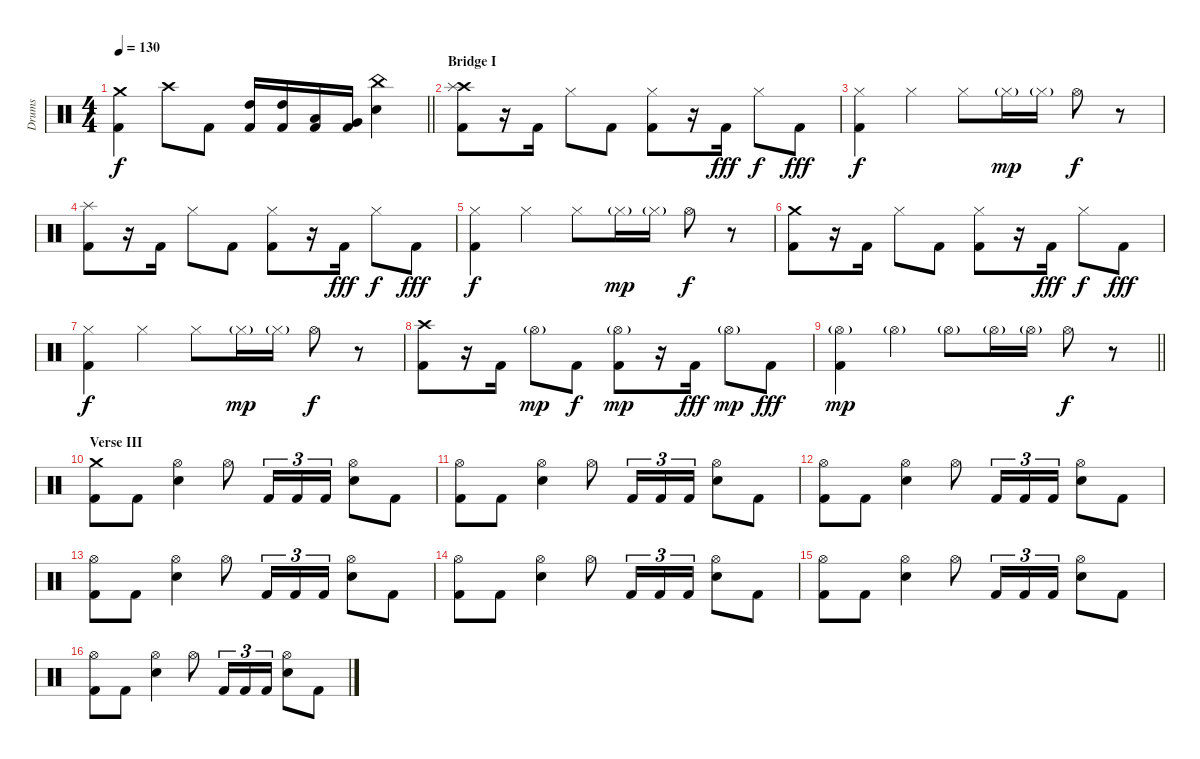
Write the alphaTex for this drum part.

\track ("Drums" "Drums") {instrument percussion}
\staff {score}
\articulation defaults
\ts (4 4)
\tempo 130
\clef neutral
\barLineRight lightlight
\ks c
("Crash medium (hit)" "Kick (hit) 2").4{dy f} "Crash high (hit)".8 "Kick (hit) 2".8 ("High Tom (hit)" "Kick (hit) 2").16 ("High Tom (hit)" "Kick (hit) 2").16 ("Low Tom (hit)" "Kick (hit) 2").16 ("Very Low Tom (hit)" "Kick (hit) 2").16 ("China (hit)" "Electric Snare (hit)").4 |
\section ("" "Bridge I")
("Crash high (hit)" "Splash (hit)" "Kick (hit) 2").8 r.16 "Kick (hit) 2".16 "Hi-Hat (closed)".8 "Kick (hit) 2".8 ("Hi-Hat (closed)" "Kick (hit) 2").8 r.16 "Kick (hit) 2".16{dy fff} "Hi-Hat (closed)".8{dy f} "Kick (hit) 2".8{dy fff} |
("Hi-Hat (closed)" "Kick (hit) 2").4{dy f} "Hi-Hat (closed)".4 "Hi-Hat (closed)".8 "Hi-Hat (closed)"{g}.16{dy mp} "Hi-Hat (closed)"{g}.16 "Hi-Hat (open)".8{dy f} r.8 |
("Splash (hit)" "Kick (hit) 2").8 r.16 "Kick (hit) 2".16 "Hi-Hat (closed)".8 "Kick (hit) 2".8 ("Hi-Hat (closed)" "Kick (hit) 2").8 r.16 "Kick (hit) 2".16{dy fff} "Hi-Hat (closed)".8{dy f} "Kick (hit) 2".8{dy fff} |
("Hi-Hat (closed)" "Kick (hit) 2").4{dy f} "Hi-Hat (closed)".4 "Hi-Hat (closed)".8 "Hi-Hat (closed)"{g}.16{dy mp} "Hi-Hat (closed)"{g}.16 "Hi-Hat (open)".8{dy f} r.8 |
("Crash medium (hit)" "Kick (hit) 2").8 r.16 "Kick (hit) 2".16 "Hi-Hat (closed)".8 "Kick (hit) 2".8 ("Hi-Hat (closed)" "Kick (hit) 2").8 r.16 "Kick (hit) 2".16{dy fff} "Hi-Hat (closed)".8{dy f} "Kick (hit) 2".8{dy fff} |
("Hi-Hat (closed)" "Kick (hit) 2").4{dy f} "Hi-Hat (closed)".4 "Hi-Hat (closed)".8 "Hi-Hat (closed)"{g}.16{dy mp} "Hi-Hat (closed)"{g}.16 "Hi-Hat (open)".8{dy f} r.8 |
("Crash high (hit)" "Kick (hit) 2").8 r.16 "Kick (hit) 2".16 "Hi-Hat (open)"{g}.8{dy mp} "Kick (hit) 2".8{dy f} ("Hi-Hat (open)"{g} "Kick (hit) 2").8{dy mp} r.16 "Kick (hit) 2".16{dy fff} "Hi-Hat (open)"{g}.8{dy mp} "Kick (hit) 2".8{dy fff} |
\barLineRight lightlight
("Hi-Hat (open)"{g} "Kick (hit) 2").4{dy mp} "Hi-Hat (open)"{g}.4 "Hi-Hat (open)"{g}.8 "Hi-Hat (open)"{g}.16 "Hi-Hat (open)"{g}.16 "Hi-Hat (open)".8{dy f} r.8 |
\section ("" "Verse III")
("Crash medium (hit)" "Kick (hit) 2").8 "Kick (hit) 2".8 ("Hi-Hat (open)" "Electric Snare (hit)").4 "Hi-Hat (open)".8 "Kick (hit) 2".16{tu (3 2)} "Kick (hit) 2".16{tu (3 2)} "Kick (hit) 2".16{tu (3 2)} ("Hi-Hat (open)" "Electric Snare (hit)").8 "Kick (hit) 2".8 |
("Hi-Hat (open)" "Kick (hit) 2").8 "Kick (hit) 2".8 ("Hi-Hat (open)" "Electric Snare (hit)").4 "Hi-Hat (open)".8 "Kick (hit) 2".16{tu (3 2)} "Kick (hit) 2".16{tu (3 2)} "Kick (hit) 2".16{tu (3 2)} ("Hi-Hat (open)" "Electric Snare (hit)").8 "Kick (hit) 2".8 |
("Hi-Hat (open)" "Kick (hit) 2").8 "Kick (hit) 2".8 ("Hi-Hat (open)" "Electric Snare (hit)").4 "Hi-Hat (open)".8 "Kick (hit) 2".16{tu (3 2)} "Kick (hit) 2".16{tu (3 2)} "Kick (hit) 2".16{tu (3 2)} ("Hi-Hat (open)" "Electric Snare (hit)").8 "Kick (hit) 2".8 |
("Hi-Hat (open)" "Kick (hit) 2").8 "Kick (hit) 2".8 ("Hi-Hat (open)" "Electric Snare (hit)").4 "Hi-Hat (open)".8 "Kick (hit) 2".16{tu (3 2)} "Kick (hit) 2".16{tu (3 2)} "Kick (hit) 2".16{tu (3 2)} ("Hi-Hat (open)" "Electric Snare (hit)").8 "Kick (hit) 2".8 |
("Hi-Hat (open)" "Kick (hit) 2").8 "Kick (hit) 2".8 ("Hi-Hat (open)" "Electric Snare (hit)").4 "Hi-Hat (open)".8 "Kick (hit) 2".16{tu (3 2)} "Kick (hit) 2".16{tu (3 2)} "Kick (hit) 2".16{tu (3 2)} ("Hi-Hat (open)" "Electric Snare (hit)").8 "Kick (hit) 2".8 |
("Hi-Hat (open)" "Kick (hit) 2").8 "Kick (hit) 2".8 ("Hi-Hat (open)" "Electric Snare (hit)").4 "Hi-Hat (open)".8 "Kick (hit) 2".16{tu (3 2)} "Kick (hit) 2".16{tu (3 2)} "Kick (hit) 2".16{tu (3 2)} ("Hi-Hat (open)" "Electric Snare (hit)").8 "Kick (hit) 2".8 |
("Hi-Hat (open)" "Kick (hit) 2").8 "Kick (hit) 2".8 ("Hi-Hat (open)" "Electric Snare (hit)").4 "Hi-Hat (open)".8 "Kick (hit) 2".16{tu (3 2)} "Kick (hit) 2".16{tu (3 2)} "Kick (hit) 2".16{tu (3 2)} ("Hi-Hat (open)" "Electric Snare (hit)").8 "Kick (hit) 2".8
